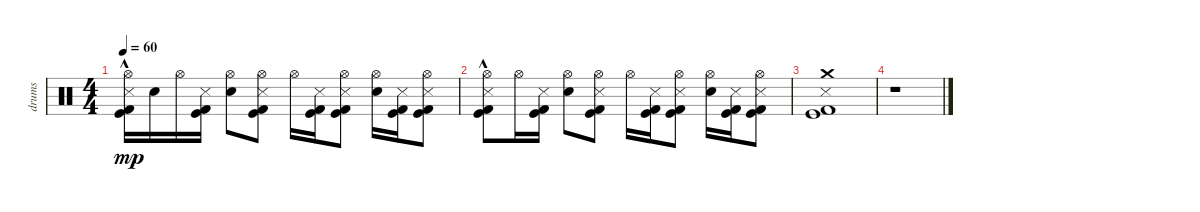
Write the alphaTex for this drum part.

\track ("drums" "drums") {instrument percussion}
\staff {score}
\articulation defaults
\ts (4 4)
\tempo 60
\clef neutral
\ks c
("Hi-Hat (open)" "Metronome (hit)"{hac} "Kick (hit)"{hac} "Kick (hit) 2"{hac}).16{dy mp} "Snare (hit) 2".16 "Hi-Hat (open)".16 ("Metronome (hit)" "Kick (hit)" "Kick (hit) 2").16 ("Snare (hit) 2" "Hi-Hat (open)").8 ("Hi-Hat (open)" "Metronome (hit)" "Kick (hit)" "Kick (hit) 2").8 "Hi-Hat (open)".16 ("Metronome (hit)" "Kick (hit)" "Kick (hit) 2").16 ("Hi-Hat (open)" "Metronome (hit)" "Kick (hit)" "Kick (hit) 2").8 ("Snare (hit) 2" "Hi-Hat (open)").16 ("Metronome (hit)" "Kick (hit)" "Kick (hit) 2").16 ("Hi-Hat (open)" "Metronome (hit)" "Kick (hit)" "Kick (hit) 2").8 |
("Hi-Hat (open)" "Metronome (hit)"{hac} "Kick (hit)"{hac} "Kick (hit) 2"{hac}).8 "Hi-Hat (open)".16 ("Metronome (hit)" "Kick (hit)" "Kick (hit) 2").16 ("Snare (hit) 2" "Hi-Hat (open)").8 ("Hi-Hat (open)" "Metronome (hit)" "Kick (hit)" "Kick (hit) 2").8 "Hi-Hat (open)".16 ("Metronome (hit)" "Kick (hit)" "Kick (hit) 2").16 ("Hi-Hat (open)" "Metronome (hit)" "Kick (hit)" "Kick (hit) 2").8 ("Snare (hit) 2" "Hi-Hat (open)").16 ("Metronome (hit)" "Kick (hit)" "Kick (hit) 2").16 ("Hi-Hat (open)" "Metronome (hit)" "Kick (hit)" "Kick (hit) 2").8 |
("Crash medium (hit)" "Metronome (hit)" "Kick (hit)" "Kick (hit) 2").1 |
r.1
